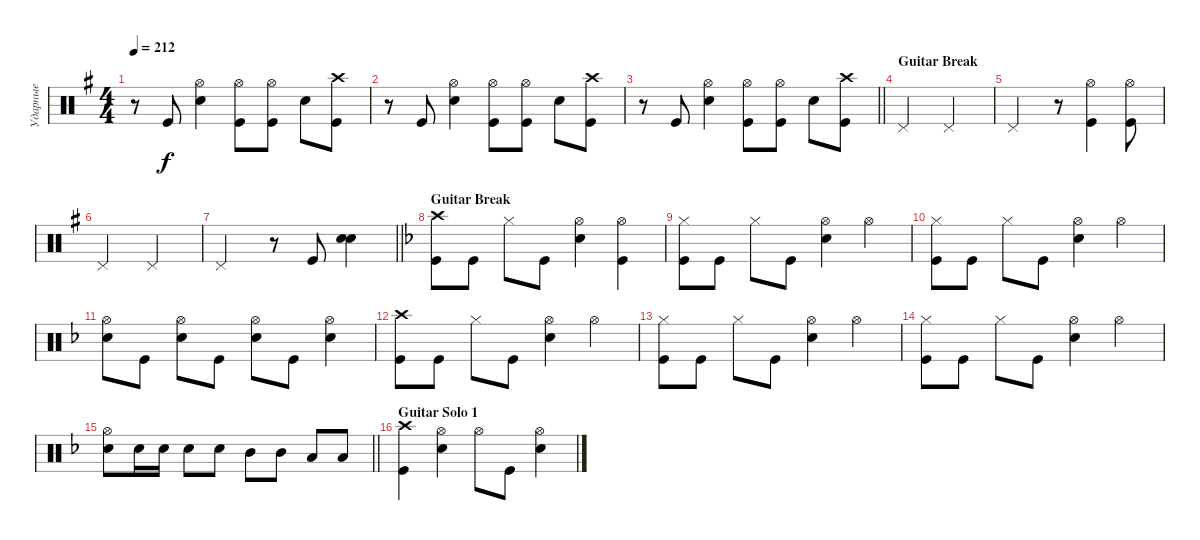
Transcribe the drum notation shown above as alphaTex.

\track ("Ударные" "Ударные") {instrument percussion}
\staff {score}
\articulation defaults
\ts (4 4)
\tempo 212
\clef neutral
\ks eminor
r.8{dy f} "Kick (hit)".8 ("Snare (hit) 2" "Hi-Hat (open)").4 ("Hi-Hat (open)" "Kick (hit)").8 ("Hi-Hat (open)" "Kick (hit)").8 "Snare (hit) 2".8 ("Kick (hit)" "Crash high (hit)").8 |
r.8 "Kick (hit)".8 ("Snare (hit) 2" "Hi-Hat (open)").4 ("Hi-Hat (open)" "Kick (hit)").8 ("Hi-Hat (open)" "Kick (hit)").8 "Snare (hit) 2".8 ("Kick (hit)" "Crash high (hit)").8 |
\barLineRight lightlight
r.8 "Kick (hit)".8 ("Snare (hit) 2" "Hi-Hat (open)").4 ("Hi-Hat (open)" "Kick (hit)").8 ("Hi-Hat (open)" "Kick (hit)").8 "Snare (hit) 2".8 ("Kick (hit)" "Crash high (hit)").8 |
\section ("" "Guitar Break")
"Pedal Hi-Hat (hit)".2 "Pedal Hi-Hat (hit)".2 |
"Pedal Hi-Hat (hit)".2 r.8 ("Hi-Hat (open)" "Kick (hit)").4 ("Kick (hit)" "Hi-Hat (open)").8 |
"Pedal Hi-Hat (hit)".2 "Pedal Hi-Hat (hit)".2 |
\barLineRight lightlight "Pedal Hi-Hat (hit)".2
r.8 "Kick (hit)".8 ("Snare (hit) 2" "Snare (hit) 2").4{bd 480} |
\section ("" "Guitar Break")
\ks dminor
("Kick (hit)" "Crash high (hit)").8 "Kick (hit)".8 "Hi-Hat (closed)".8 "Kick (hit)".8 ("Snare (hit) 2" "Hi-Hat (open)").4 ("Kick (hit)" "Hi-Hat (open)").4 |
("Kick (hit)" "Hi-Hat (closed)").8 "Kick (hit)".8 "Hi-Hat (closed)".8 "Kick (hit)".8 ("Snare (hit) 2" "Hi-Hat (open)").4 "Hi-Hat (open)".4 |
("Kick (hit)" "Hi-Hat (closed)").8 "Kick (hit)".8 "Hi-Hat (closed)".8 "Kick (hit)".8 ("Snare (hit) 2" "Hi-Hat (open)").4 "Hi-Hat (open)".4 |
("Snare (hit) 2" "Hi-Hat (open)").8 "Kick (hit)".8 ("Snare (hit) 2" "Hi-Hat (open)").8 "Kick (hit)".8 ("Snare (hit) 2" "Hi-Hat (open)").8 "Kick (hit)".8 ("Snare (hit) 2" "Hi-Hat (open)").4 |
("Kick (hit)" "Crash high (hit)").8 "Kick (hit)".8 "Hi-Hat (closed)".8 "Kick (hit)".8 ("Snare (hit) 2" "Hi-Hat (open)").4 "Hi-Hat (open)".4 |
("Kick (hit)" "Hi-Hat (closed)").8 "Kick (hit)".8 "Hi-Hat (closed)".8 "Kick (hit)".8 ("Snare (hit) 2" "Hi-Hat (open)").4 "Hi-Hat (open)".4 |
("Kick (hit)" "Hi-Hat (closed)").8 "Kick (hit)".8 "Hi-Hat (closed)".8 "Kick (hit)".8 ("Snare (hit) 2" "Hi-Hat (open)").4 "Hi-Hat (open)".4 |
\barLineRight lightlight
("Snare (hit) 2" "Hi-Hat (open)").8 "Snare (hit) 2".16 "Snare (hit) 2".16 "Snare (hit) 2".8 "Snare (hit) 2".8 "Mid Tom (hit)".8 "Mid Tom (hit)".8 "Low Tom (hit)".8 "Low Tom (hit)".8 |
\section ("" "Guitar Solo 1")
("Kick (hit)" "Crash high (hit)").4 ("Snare (hit) 2" "Hi-Hat (open)").4 "Hi-Hat (open)".8 "Kick (hit)".8 ("Hi-Hat (open)" "Snare (hit) 2").4
